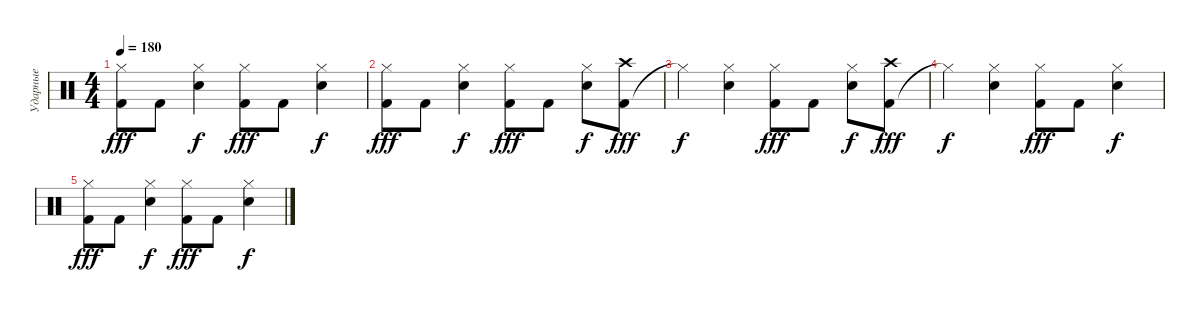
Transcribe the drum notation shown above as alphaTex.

\track ("Ударные" "Ударные") {instrument percussion}
\staff
\articulation defaults
\ts (4 4)
\tempo 180
\clef neutral
\ks c
("Kick (hit) 2" "Hi-Hat (closed)").8{dy fff} "Kick (hit) 2".8 ("Snare (hit) 2" "Hi-Hat (closed)").4{dy f} ("Kick (hit) 2" "Hi-Hat (closed)").8{dy fff} "Kick (hit) 2".8 ("Snare (hit) 2" "Hi-Hat (closed)").4{dy f} |
("Kick (hit) 2" "Hi-Hat (closed)").8{dy fff} "Kick (hit) 2".8 ("Snare (hit) 2" "Hi-Hat (closed)").4{dy f} ("Kick (hit) 2" "Hi-Hat (closed)").8{dy fff} "Kick (hit) 2".8 ("Snare (hit) 2" "Hi-Hat (closed)").8{dy f} ("Kick (hit) 2" "Crash high (hit)").8{dy fff} |
"Hi-Hat (closed)"{t}.4{dy f} ("Snare (hit) 2" "Hi-Hat (closed)").4 ("Kick (hit) 2" "Hi-Hat (closed)").8{dy fff} "Kick (hit) 2".8 ("Snare (hit) 2" "Hi-Hat (closed)").8{dy f} ("Kick (hit) 2" "Crash high (hit)").8{dy fff} |
"Hi-Hat (closed)"{t}.4{dy f} ("Snare (hit) 2" "Hi-Hat (closed)").4 ("Kick (hit) 2" "Hi-Hat (closed)").8{dy fff} "Kick (hit) 2".8 ("Snare (hit) 2" "Hi-Hat (closed)").4{dy f} |
("Kick (hit) 2" "Hi-Hat (closed)").8{dy fff} "Kick (hit) 2".8 ("Snare (hit) 2" "Hi-Hat (closed)").4{dy f} ("Kick (hit) 2" "Hi-Hat (closed)").8{dy fff} "Kick (hit) 2".8 ("Snare (hit) 2" "Hi-Hat (closed)").4{dy f}
